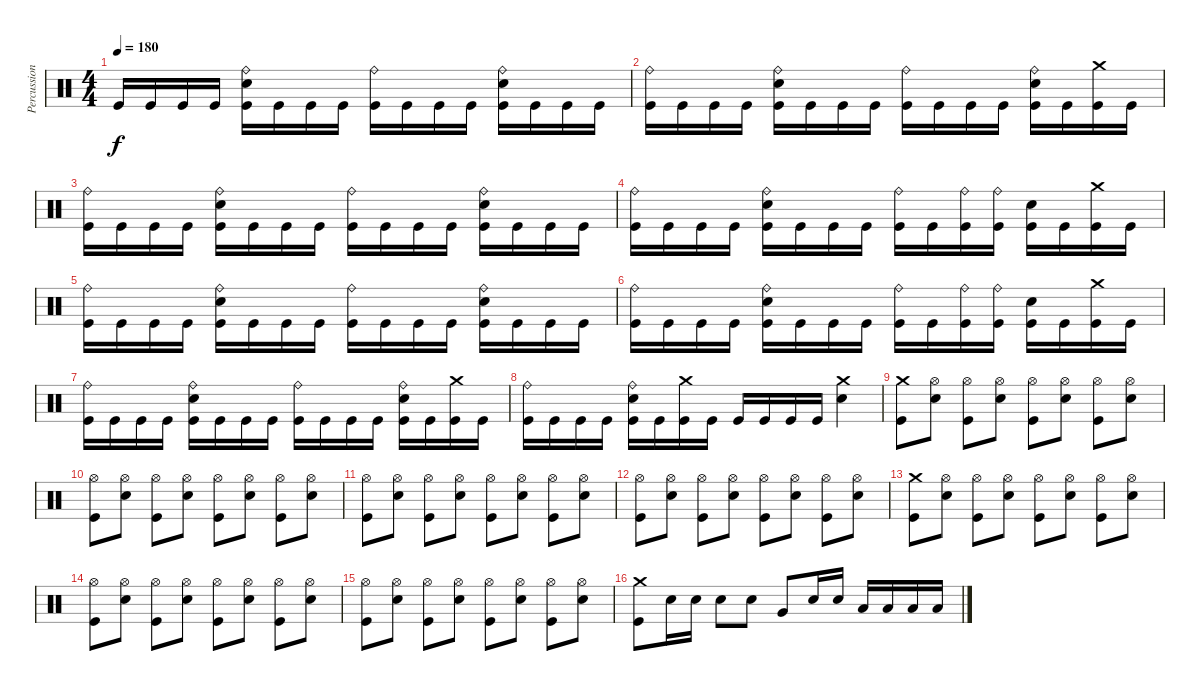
\track ("Percussions" "Percussion") {instrument percussion}
\staff {score}
\articulation defaults
\ts (4 4)
\tempo 180
\clef neutral
\ks c "Kick (hit)".16{dy f} "Kick (hit)".16 "Kick (hit)".16 "Kick (hit)".16
("Kick (hit)" "Electric Snare (hit)" "Ride (bell)").16 "Kick (hit)".16 "Kick (hit)".16 "Kick (hit)".16 ("Kick (hit)" "Ride (bell)").16 "Kick (hit)".16 "Kick (hit)".16 "Kick (hit)".16 ("Kick (hit)" "Electric Snare (hit)" "Ride (bell)").16 "Kick (hit)".16 "Kick (hit)".16 "Kick (hit)".16 |
("Kick (hit)" "Ride (bell)").16 "Kick (hit)".16 "Kick (hit)".16 "Kick (hit)".16 ("Kick (hit)" "Electric Snare (hit)" "Ride (bell)").16 "Kick (hit)".16 "Kick (hit)".16 "Kick (hit)".16 ("Kick (hit)" "Ride (bell)").16 "Kick (hit)".16 "Kick (hit)".16 "Kick (hit)".16 ("Kick (hit)" "Electric Snare (hit)" "Ride (bell)").16 "Kick (hit)".16 ("Kick (hit)" "Crash medium (hit)").16 "Kick (hit)".16 |
("Kick (hit)" "Ride (bell)").16 "Kick (hit)".16 "Kick (hit)".16 "Kick (hit)".16 ("Kick (hit)" "Electric Snare (hit)" "Ride (bell)").16 "Kick (hit)".16 "Kick (hit)".16 "Kick (hit)".16 ("Kick (hit)" "Ride (bell)").16 "Kick (hit)".16 "Kick (hit)".16 "Kick (hit)".16 ("Kick (hit)" "Electric Snare (hit)" "Ride (bell)").16 "Kick (hit)".16 "Kick (hit)".16 "Kick (hit)".16 |
("Kick (hit)" "Ride (bell)").16 "Kick (hit)".16 "Kick (hit)".16 "Kick (hit)".16 ("Kick (hit)" "Electric Snare (hit)" "Ride (bell)").16 "Kick (hit)".16 "Kick (hit)".16 "Kick (hit)".16 ("Kick (hit)" "Ride (bell)").16 "Kick (hit)".16 ("Kick (hit)" "Ride (bell)").16 ("Kick (hit)" "Ride (bell)").16 ("Kick (hit)" "Electric Snare (hit)").16 "Kick (hit)".16 ("Kick (hit)" "Crash medium (hit)").16 "Kick (hit)".16 |
("Kick (hit)" "Ride (bell)").16 "Kick (hit)".16 "Kick (hit)".16 "Kick (hit)".16 ("Kick (hit)" "Electric Snare (hit)" "Ride (bell)").16 "Kick (hit)".16 "Kick (hit)".16 "Kick (hit)".16 ("Kick (hit)" "Ride (bell)").16 "Kick (hit)".16 "Kick (hit)".16 "Kick (hit)".16 ("Kick (hit)" "Electric Snare (hit)" "Ride (bell)").16 "Kick (hit)".16 "Kick (hit)".16 "Kick (hit)".16 |
("Kick (hit)" "Ride (bell)").16 "Kick (hit)".16 "Kick (hit)".16 "Kick (hit)".16 ("Kick (hit)" "Electric Snare (hit)" "Ride (bell)").16 "Kick (hit)".16 "Kick (hit)".16 "Kick (hit)".16 ("Kick (hit)" "Ride (bell)").16 "Kick (hit)".16 ("Kick (hit)" "Ride (bell)").16 ("Kick (hit)" "Ride (bell)").16 ("Kick (hit)" "Electric Snare (hit)").16 "Kick (hit)".16 ("Kick (hit)" "Crash medium (hit)").16 "Kick (hit)".16 |
("Kick (hit)" "Ride (bell)").16 "Kick (hit)".16 "Kick (hit)".16 "Kick (hit)".16 ("Kick (hit)" "Electric Snare (hit)" "Ride (bell)").16 "Kick (hit)".16 "Kick (hit)".16 "Kick (hit)".16 ("Kick (hit)" "Ride (bell)").16 "Kick (hit)".16 "Kick (hit)".16 "Kick (hit)".16 ("Kick (hit)" "Electric Snare (hit)" "Ride (bell)").16 "Kick (hit)".16 ("Kick (hit)" "Crash medium (hit)").16 "Kick (hit)".16 |
("Kick (hit)" "Ride (bell)").16 "Kick (hit)".16 "Kick (hit)".16 "Kick (hit)".16 ("Kick (hit)" "Electric Snare (hit)" "Ride (bell)").16 "Kick (hit)".16 ("Kick (hit)" "Crash medium (hit)").16 "Kick (hit)".16 "Kick (hit)".16 "Kick (hit)".16 "Kick (hit)".16 "Kick (hit)".16 ("Electric Snare (hit)" "Crash medium (hit)").4 |
("Kick (hit)" "Crash medium (hit)").8 ("Electric Snare (hit)" "Hi-Hat (open)").8 ("Kick (hit)" "Hi-Hat (open)").8 ("Electric Snare (hit)" "Hi-Hat (open)").8 ("Kick (hit)" "Hi-Hat (open)").8 ("Electric Snare (hit)" "Hi-Hat (open)").8 ("Kick (hit)" "Hi-Hat (open)").8 ("Electric Snare (hit)" "Hi-Hat (open)").8 |
("Kick (hit)" "Hi-Hat (open)").8 ("Electric Snare (hit)" "Hi-Hat (open)").8 ("Kick (hit)" "Hi-Hat (open)").8 ("Electric Snare (hit)" "Hi-Hat (open)").8 ("Kick (hit)" "Hi-Hat (open)").8 ("Electric Snare (hit)" "Hi-Hat (open)").8 ("Kick (hit)" "Hi-Hat (open)").8 ("Electric Snare (hit)" "Hi-Hat (open)").8 |
("Kick (hit)" "Hi-Hat (open)").8 ("Electric Snare (hit)" "Hi-Hat (open)").8 ("Kick (hit)" "Hi-Hat (open)").8 ("Electric Snare (hit)" "Hi-Hat (open)").8 ("Kick (hit)" "Hi-Hat (open)").8 ("Electric Snare (hit)" "Hi-Hat (open)").8 ("Kick (hit)" "Hi-Hat (open)").8 ("Electric Snare (hit)" "Hi-Hat (open)").8 |
("Kick (hit)" "Hi-Hat (open)").8 ("Electric Snare (hit)" "Hi-Hat (open)").8 ("Kick (hit)" "Hi-Hat (open)").8 ("Electric Snare (hit)" "Hi-Hat (open)").8 ("Kick (hit)" "Hi-Hat (open)").8 ("Electric Snare (hit)" "Hi-Hat (open)").8 ("Kick (hit)" "Hi-Hat (open)").8 ("Electric Snare (hit)" "Hi-Hat (open)").8 |
("Kick (hit)" "Crash medium (hit)").8 ("Electric Snare (hit)" "Hi-Hat (open)").8 ("Kick (hit)" "Hi-Hat (open)").8 ("Electric Snare (hit)" "Hi-Hat (open)").8 ("Kick (hit)" "Hi-Hat (open)").8 ("Electric Snare (hit)" "Hi-Hat (open)").8 ("Kick (hit)" "Hi-Hat (open)").8 ("Electric Snare (hit)" "Hi-Hat (open)").8 |
("Kick (hit)" "Hi-Hat (open)").8 ("Electric Snare (hit)" "Hi-Hat (open)").8 ("Kick (hit)" "Hi-Hat (open)").8 ("Electric Snare (hit)" "Hi-Hat (open)").8 ("Kick (hit)" "Hi-Hat (open)").8 ("Electric Snare (hit)" "Hi-Hat (open)").8 ("Kick (hit)" "Hi-Hat (open)").8 ("Electric Snare (hit)" "Hi-Hat (open)").8 |
("Kick (hit)" "Hi-Hat (open)").8 ("Electric Snare (hit)" "Hi-Hat (open)").8 ("Kick (hit)" "Hi-Hat (open)").8 ("Electric Snare (hit)" "Hi-Hat (open)").8 ("Kick (hit)" "Hi-Hat (open)").8 ("Electric Snare (hit)" "Hi-Hat (open)").8 ("Kick (hit)" "Hi-Hat (open)").8 ("Electric Snare (hit)" "Hi-Hat (open)").8 |
("Kick (hit)" "Crash medium (hit)").8 "Electric Snare (hit)".16 "Electric Snare (hit)".16 "Electric Snare (hit)".8 "Electric Snare (hit)".8 "Very Low Tom (hit)".8 "Electric Snare (hit)".16 "Electric Snare (hit)".16 "Low Tom (hit)".16 "Low Tom (hit)".16 "Low Tom (hit)".16 "Low Tom (hit)".16
